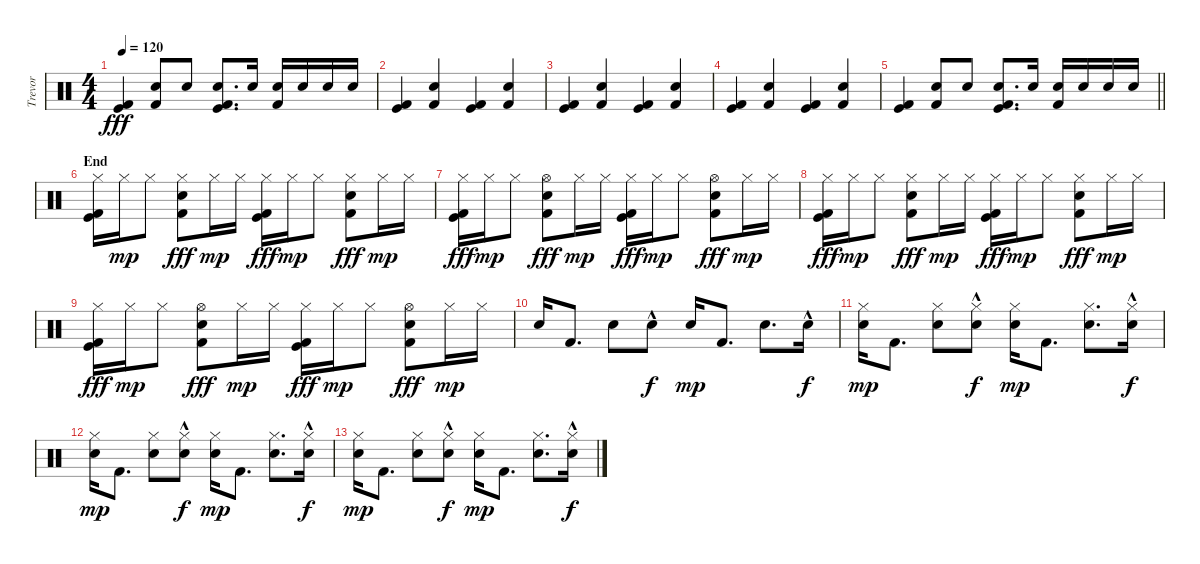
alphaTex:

\track ("Trevor" "Trevor") {instrument percussion}
\staff {score}
\articulation defaults
\ts (4 4)
\tempo 120
\clef neutral
\ks c
("Kick (hit)" "Kick (hit) 2").4{dy fff} ("Kick (hit) 2" "Snare (hit) 2").8 "Snare (hit) 2".8 ("Kick (hit)" "Kick (hit) 2" "Snare (hit) 2").8{d} "Snare (hit) 2".16 ("Kick (hit) 2" "Snare (hit) 2").16 "Snare (hit) 2".16 "Snare (hit) 2".16 "Snare (hit) 2".16 |
("Kick (hit)" "Kick (hit) 2").4 ("Kick (hit) 2" "Snare (hit) 2").4 ("Kick (hit)" "Kick (hit) 2").4 ("Kick (hit) 2" "Snare (hit) 2").4 |
("Kick (hit)" "Kick (hit) 2").4 ("Kick (hit) 2" "Snare (hit) 2").4 ("Kick (hit)" "Kick (hit) 2").4 ("Kick (hit) 2" "Snare (hit) 2").4 |
("Kick (hit)" "Kick (hit) 2").4 ("Kick (hit) 2" "Snare (hit) 2").4 ("Kick (hit)" "Kick (hit) 2").4 ("Kick (hit) 2" "Snare (hit) 2").4 |
\barLineRight lightlight
("Kick (hit)" "Kick (hit) 2").4 ("Kick (hit) 2" "Snare (hit) 2").8 "Snare (hit) 2".8 ("Kick (hit)" "Kick (hit) 2" "Snare (hit) 2").8{d} "Snare (hit) 2".16 ("Kick (hit) 2" "Snare (hit) 2").16 "Snare (hit) 2".16 "Snare (hit) 2".16 "Snare (hit) 2".16 |
\section ("" "End")
("Hi-Hat (closed)" "Kick (hit)" "Kick (hit) 2").16 "Hi-Hat (closed)".16{dy mp} "Hi-Hat (closed)".8 ("Hi-Hat (closed)" "Kick (hit) 2" "Snare (hit) 2").8{dy fff} "Hi-Hat (closed)".16{dy mp} "Hi-Hat (closed)".16 ("Hi-Hat (closed)" "Kick (hit)" "Kick (hit) 2").16{dy fff} "Hi-Hat (closed)".16{dy mp} "Hi-Hat (closed)".8 ("Hi-Hat (closed)" "Kick (hit) 2" "Snare (hit) 2").8{dy fff} "Hi-Hat (closed)".16{dy mp} "Hi-Hat (closed)".16 |
("Hi-Hat (closed)" "Kick (hit)" "Kick (hit) 2").16{dy fff} "Hi-Hat (closed)".16{dy mp} "Hi-Hat (closed)".8 ("Hi-Hat (open)" "Kick (hit) 2" "Snare (hit) 2").8{dy fff} "Hi-Hat (closed)".16{dy mp} "Hi-Hat (closed)".16 ("Hi-Hat (closed)" "Kick (hit)" "Kick (hit) 2").16{dy fff} "Hi-Hat (closed)".16{dy mp} "Hi-Hat (closed)".8 ("Hi-Hat (open)" "Kick (hit) 2" "Snare (hit) 2").8{dy fff} "Hi-Hat (closed)".16{dy mp} "Hi-Hat (closed)".16 |
("Hi-Hat (closed)" "Kick (hit)" "Kick (hit) 2").16{dy fff} "Hi-Hat (closed)".16{dy mp} "Hi-Hat (closed)".8 ("Hi-Hat (closed)" "Kick (hit) 2" "Snare (hit) 2").8{dy fff} "Hi-Hat (closed)".16{dy mp} "Hi-Hat (closed)".16 ("Hi-Hat (closed)" "Kick (hit)" "Kick (hit) 2").16{dy fff} "Hi-Hat (closed)".16{dy mp} "Hi-Hat (closed)".8 ("Hi-Hat (closed)" "Kick (hit) 2" "Snare (hit) 2").8{dy fff} "Hi-Hat (closed)".16{dy mp} "Hi-Hat (closed)".16 |
("Hi-Hat (closed)" "Kick (hit)" "Kick (hit) 2").16{dy fff} "Hi-Hat (closed)".16{dy mp} "Hi-Hat (closed)".8 ("Hi-Hat (open)" "Kick (hit) 2" "Snare (hit) 2").8{dy fff} "Hi-Hat (closed)".16{dy mp} "Hi-Hat (closed)".16 ("Hi-Hat (closed)" "Kick (hit)" "Kick (hit) 2").16{dy fff} "Hi-Hat (closed)".16{dy mp} "Hi-Hat (closed)".8 ("Hi-Hat (open)" "Kick (hit) 2" "Snare (hit) 2").8{dy fff} "Hi-Hat (closed)".16{dy mp} "Hi-Hat (closed)".16 |
"Snare (hit) 2".16 "Kick (hit) 2".8{d} "Snare (hit) 2".8 "Snare (hit) 2"{hac}.8{dy f} "Snare (hit) 2".16{dy mp} "Kick (hit) 2".8{d} "Snare (hit) 2".8{d} "Snare (hit) 2"{hac}.16{dy f} |
("Hi-Hat (closed)" "Snare (hit) 2").16{dy mp} "Kick (hit) 2".8{d} ("Hi-Hat (closed)" "Snare (hit) 2").8 ("Hi-Hat (closed)" "Snare (hit) 2"{hac}).8{dy f} ("Hi-Hat (closed)" "Snare (hit) 2").16{dy mp} "Kick (hit) 2".8{d} ("Hi-Hat (closed)" "Snare (hit) 2").8{d} ("Hi-Hat (closed)" "Snare (hit) 2"{hac}).16{dy f} |
("Hi-Hat (closed)" "Snare (hit) 2").16{dy mp} "Kick (hit) 2".8{d} ("Hi-Hat (closed)" "Snare (hit) 2").8 ("Hi-Hat (closed)" "Snare (hit) 2"{hac}).8{dy f} ("Hi-Hat (closed)" "Snare (hit) 2").16{dy mp} "Kick (hit) 2".8{d} ("Hi-Hat (closed)" "Snare (hit) 2").8{d} ("Hi-Hat (closed)" "Snare (hit) 2"{hac}).16{dy f} |
("Hi-Hat (closed)" "Snare (hit) 2").16{dy mp} "Kick (hit) 2".8{d} ("Hi-Hat (closed)" "Snare (hit) 2").8 ("Hi-Hat (closed)" "Snare (hit) 2"{hac}).8{dy f} ("Hi-Hat (closed)" "Snare (hit) 2").16{dy mp} "Kick (hit) 2".8{d} ("Hi-Hat (closed)" "Snare (hit) 2").8{d} ("Hi-Hat (closed)" "Snare (hit) 2"{hac}).16{dy f}
